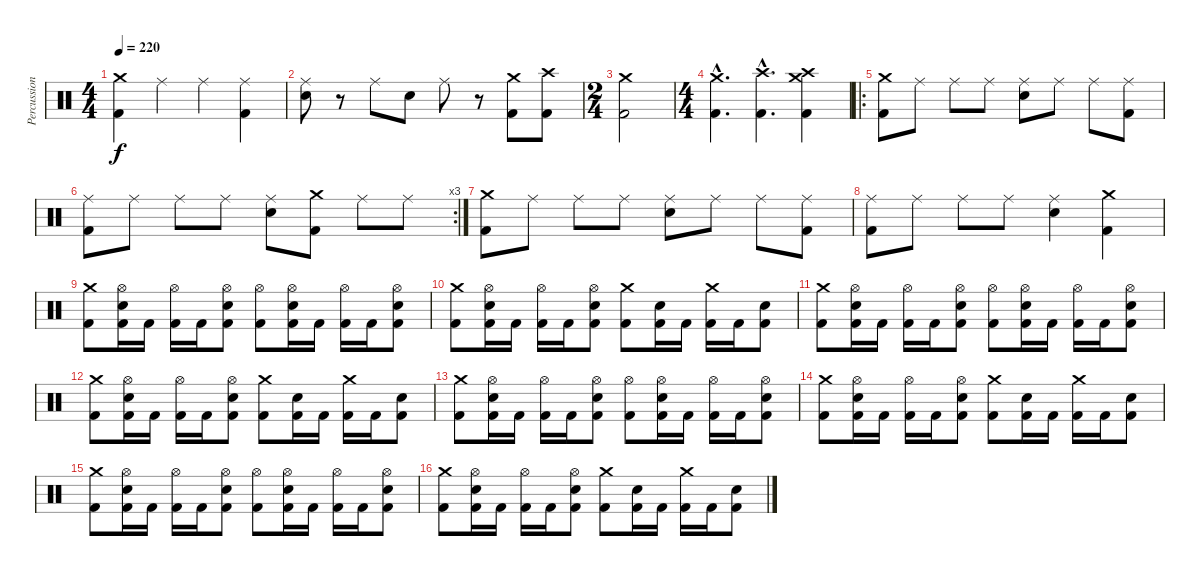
\track ("Percussion" "Percussion") {instrument percussion}
\staff {score}
\articulation defaults
\ts (4 4)
\tempo 220
\clef neutral
\ks c
("Kick (hit) 2" "Crash medium (hit)").4{dy f} "Ride (middle)".4 "Ride (middle)".4 ("Kick (hit) 2" "Ride (middle)").4 |
("Snare (hit) 2" "Ride (middle)").8 r.8 "Ride (middle)".8 "Snare (hit) 2".8 "Ride (middle)".8 r.8 ("Crash medium (hit)" "Kick (hit) 2").8 ("Crash high (hit)" "Kick (hit) 2").8 |
\ts (2 4)
("Crash medium (hit)" "Kick (hit) 2").2 |
\ts (4 4)
("Crash medium (hit)"{hac} "Kick (hit) 2"{hac}).4{d} ("Crash high (hit)"{hac} "Kick (hit) 2"{hac}).4{d} ("Crash high (hit)" "Crash medium (hit)" "Kick (hit) 2").4 |
\ro
("Kick (hit) 2" "Crash medium (hit)").8 "Ride (middle)".8 "Ride (middle)".8 "Ride (middle)".8 ("Snare (hit) 2" "Ride (middle)").8 "Ride (middle)".8 "Ride (middle)".8 ("Kick (hit) 2" "Ride (middle)").8 |
\rc 3
("Kick (hit) 2" "Ride (middle)").8 "Ride (middle)".8 "Ride (middle)".8 "Ride (middle)".8 ("Snare (hit) 2" "Ride (middle)").8 ("Kick (hit) 2" "Crash medium (hit)").8 "Ride (middle)".8 "Ride (middle)".8 |
("Kick (hit) 2" "Crash medium (hit)").8 "Ride (middle)".8 "Ride (middle)".8 "Ride (middle)".8 ("Snare (hit) 2" "Ride (middle)").8 "Ride (middle)".8 "Ride (middle)".8 ("Kick (hit) 2" "Ride (middle)").8 |
("Kick (hit) 2" "Ride (middle)").8 "Ride (middle)".8 "Ride (middle)".8 "Ride (middle)".8 ("Snare (hit) 2" "Ride (middle)").4 ("Kick (hit) 2" "Crash medium (hit)").4 |
("Crash medium (hit)" "Kick (hit) 2").8 ("Hi-Hat (open)" "Snare (hit) 2" "Kick (hit) 2").16 "Kick (hit) 2".16 ("Hi-Hat (open)" "Kick (hit) 2").16 "Kick (hit) 2".16 ("Hi-Hat (open)" "Snare (hit) 2" "Kick (hit) 2").8 ("Hi-Hat (open)" "Kick (hit) 2").8 ("Hi-Hat (open)" "Snare (hit) 2" "Kick (hit) 2").16 "Kick (hit) 2".16 ("Hi-Hat (open)" "Kick (hit) 2").16 "Kick (hit) 2".16 ("Hi-Hat (open)" "Snare (hit) 2" "Kick (hit) 2").8 |
("Crash medium (hit)" "Kick (hit) 2").8 ("Hi-Hat (open)" "Snare (hit) 2" "Kick (hit) 2").16 "Kick (hit) 2".16 ("Hi-Hat (open)" "Kick (hit) 2").16 "Kick (hit) 2".16 ("Hi-Hat (open)" "Snare (hit) 2" "Kick (hit) 2").8 ("Crash medium (hit)" "Kick (hit) 2").8 ("Snare (hit) 2" "Kick (hit) 2").16 "Kick (hit) 2".16 ("Crash medium (hit)" "Kick (hit) 2").16 "Kick (hit) 2".16 ("Snare (hit) 2" "Kick (hit) 2").8 |
("Crash medium (hit)" "Kick (hit) 2").8 ("Hi-Hat (open)" "Snare (hit) 2" "Kick (hit) 2").16 "Kick (hit) 2".16 ("Hi-Hat (open)" "Kick (hit) 2").16 "Kick (hit) 2".16 ("Hi-Hat (open)" "Snare (hit) 2" "Kick (hit) 2").8 ("Hi-Hat (open)" "Kick (hit) 2").8 ("Hi-Hat (open)" "Snare (hit) 2" "Kick (hit) 2").16 "Kick (hit) 2".16 ("Hi-Hat (open)" "Kick (hit) 2").16 "Kick (hit) 2".16 ("Hi-Hat (open)" "Snare (hit) 2" "Kick (hit) 2").8 |
("Crash medium (hit)" "Kick (hit) 2").8 ("Hi-Hat (open)" "Snare (hit) 2" "Kick (hit) 2").16 "Kick (hit) 2".16 ("Hi-Hat (open)" "Kick (hit) 2").16 "Kick (hit) 2".16 ("Hi-Hat (open)" "Snare (hit) 2" "Kick (hit) 2").8 ("Crash medium (hit)" "Kick (hit) 2").8 ("Snare (hit) 2" "Kick (hit) 2").16 "Kick (hit) 2".16 ("Crash medium (hit)" "Kick (hit) 2").16 "Kick (hit) 2".16 ("Snare (hit) 2" "Kick (hit) 2").8 |
("Crash medium (hit)" "Kick (hit) 2").8 ("Hi-Hat (open)" "Snare (hit) 2" "Kick (hit) 2").16 "Kick (hit) 2".16 ("Hi-Hat (open)" "Kick (hit) 2").16 "Kick (hit) 2".16 ("Hi-Hat (open)" "Snare (hit) 2" "Kick (hit) 2").8 ("Hi-Hat (open)" "Kick (hit) 2").8 ("Hi-Hat (open)" "Snare (hit) 2" "Kick (hit) 2").16 "Kick (hit) 2".16 ("Hi-Hat (open)" "Kick (hit) 2").16 "Kick (hit) 2".16 ("Hi-Hat (open)" "Snare (hit) 2" "Kick (hit) 2").8 |
("Crash medium (hit)" "Kick (hit) 2").8 ("Hi-Hat (open)" "Snare (hit) 2" "Kick (hit) 2").16 "Kick (hit) 2".16 ("Hi-Hat (open)" "Kick (hit) 2").16 "Kick (hit) 2".16 ("Hi-Hat (open)" "Snare (hit) 2" "Kick (hit) 2").8 ("Crash medium (hit)" "Kick (hit) 2").8 ("Snare (hit) 2" "Kick (hit) 2").16 "Kick (hit) 2".16 ("Crash medium (hit)" "Kick (hit) 2").16 "Kick (hit) 2".16 ("Snare (hit) 2" "Kick (hit) 2").8 |
("Crash medium (hit)" "Kick (hit) 2").8 ("Hi-Hat (open)" "Snare (hit) 2" "Kick (hit) 2").16 "Kick (hit) 2".16 ("Hi-Hat (open)" "Kick (hit) 2").16 "Kick (hit) 2".16 ("Hi-Hat (open)" "Snare (hit) 2" "Kick (hit) 2").8 ("Hi-Hat (open)" "Kick (hit) 2").8 ("Hi-Hat (open)" "Snare (hit) 2" "Kick (hit) 2").16 "Kick (hit) 2".16 ("Hi-Hat (open)" "Kick (hit) 2").16 "Kick (hit) 2".16 ("Hi-Hat (open)" "Snare (hit) 2" "Kick (hit) 2").8 |
("Crash medium (hit)" "Kick (hit) 2").8 ("Hi-Hat (open)" "Snare (hit) 2" "Kick (hit) 2").16 "Kick (hit) 2".16 ("Hi-Hat (open)" "Kick (hit) 2").16 "Kick (hit) 2".16 ("Hi-Hat (open)" "Snare (hit) 2" "Kick (hit) 2").8 ("Crash medium (hit)" "Kick (hit) 2").8 ("Snare (hit) 2" "Kick (hit) 2").16 "Kick (hit) 2".16 ("Crash medium (hit)" "Kick (hit) 2").16 "Kick (hit) 2".16 ("Snare (hit) 2" "Kick (hit) 2").8
